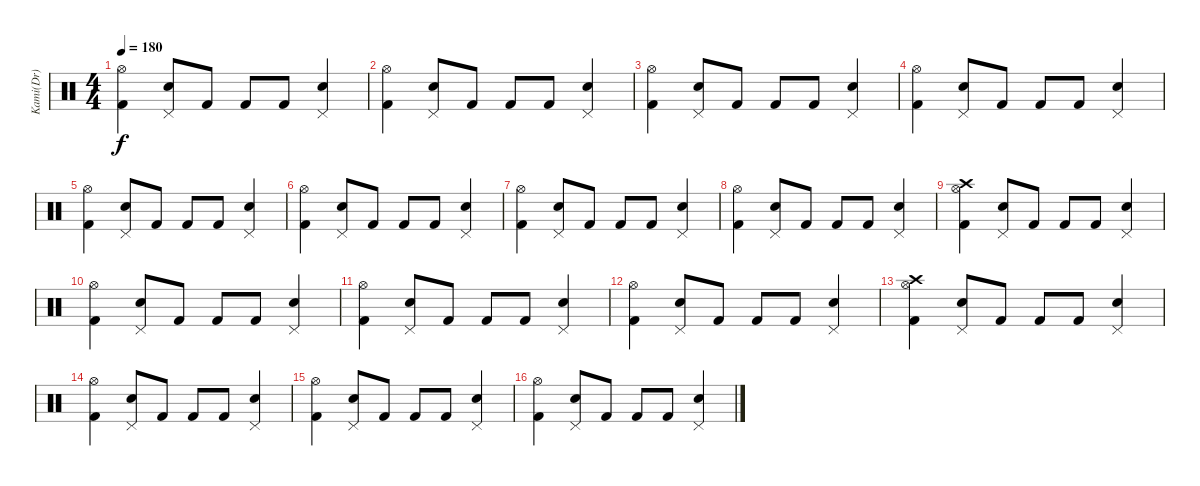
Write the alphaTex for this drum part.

\track ("Kami(Dr)" "Kami(Dr)") {instrument percussion}
\staff {score}
\articulation defaults
\ts (4 4)
\tempo 180
\clef neutral
\ks c
("Kick (hit) 2" "Hi-Hat (open)").4{dy f} ("Electric Snare (hit)" "Pedal Hi-Hat (hit)").8 "Kick (hit) 2".8 "Kick (hit) 2".8 "Kick (hit) 2".8 ("Electric Snare (hit)" "Pedal Hi-Hat (hit)").4 |
("Kick (hit) 2" "Hi-Hat (open)").4 ("Electric Snare (hit)" "Pedal Hi-Hat (hit)").8 "Kick (hit) 2".8 "Kick (hit) 2".8 "Kick (hit) 2".8 ("Electric Snare (hit)" "Pedal Hi-Hat (hit)").4 |
("Kick (hit) 2" "Hi-Hat (open)").4 ("Electric Snare (hit)" "Pedal Hi-Hat (hit)").8 "Kick (hit) 2".8 "Kick (hit) 2".8 "Kick (hit) 2".8 ("Electric Snare (hit)" "Pedal Hi-Hat (hit)").4 |
("Kick (hit) 2" "Hi-Hat (open)").4 ("Electric Snare (hit)" "Pedal Hi-Hat (hit)").8 "Kick (hit) 2".8 "Kick (hit) 2".8 "Kick (hit) 2".8 ("Electric Snare (hit)" "Pedal Hi-Hat (hit)").4 |
("Kick (hit) 2" "Hi-Hat (open)").4 ("Electric Snare (hit)" "Pedal Hi-Hat (hit)").8 "Kick (hit) 2".8 "Kick (hit) 2".8 "Kick (hit) 2".8 ("Electric Snare (hit)" "Pedal Hi-Hat (hit)").4 |
("Kick (hit) 2" "Hi-Hat (open)").4 ("Electric Snare (hit)" "Pedal Hi-Hat (hit)").8 "Kick (hit) 2".8 "Kick (hit) 2".8 "Kick (hit) 2".8 ("Electric Snare (hit)" "Pedal Hi-Hat (hit)").4 |
("Kick (hit) 2" "Hi-Hat (open)").4 ("Electric Snare (hit)" "Pedal Hi-Hat (hit)").8 "Kick (hit) 2".8 "Kick (hit) 2".8 "Kick (hit) 2".8 ("Electric Snare (hit)" "Pedal Hi-Hat (hit)").4 |
("Kick (hit) 2" "Hi-Hat (open)").4 ("Electric Snare (hit)" "Pedal Hi-Hat (hit)").8 "Kick (hit) 2".8 "Kick (hit) 2".8 "Kick (hit) 2".8 ("Electric Snare (hit)" "Pedal Hi-Hat (hit)").4 |
("Kick (hit) 2" "Hi-Hat (open)" "Crash high (hit)").4 ("Electric Snare (hit)" "Pedal Hi-Hat (hit)").8 "Kick (hit) 2".8 "Kick (hit) 2".8 "Kick (hit) 2".8 ("Electric Snare (hit)" "Pedal Hi-Hat (hit)").4 |
("Kick (hit) 2" "Hi-Hat (open)").4 ("Electric Snare (hit)" "Pedal Hi-Hat (hit)").8 "Kick (hit) 2".8 "Kick (hit) 2".8 "Kick (hit) 2".8 ("Electric Snare (hit)" "Pedal Hi-Hat (hit)").4 |
("Kick (hit) 2" "Hi-Hat (open)").4 ("Electric Snare (hit)" "Pedal Hi-Hat (hit)").8 "Kick (hit) 2".8 "Kick (hit) 2".8 "Kick (hit) 2".8 ("Electric Snare (hit)" "Pedal Hi-Hat (hit)").4 |
("Kick (hit) 2" "Hi-Hat (open)").4 ("Electric Snare (hit)" "Pedal Hi-Hat (hit)").8 "Kick (hit) 2".8 "Kick (hit) 2".8 "Kick (hit) 2".8 ("Electric Snare (hit)" "Pedal Hi-Hat (hit)").4 |
("Kick (hit) 2" "Hi-Hat (open)" "Crash high (hit)").4 ("Electric Snare (hit)" "Pedal Hi-Hat (hit)").8 "Kick (hit) 2".8 "Kick (hit) 2".8 "Kick (hit) 2".8 ("Electric Snare (hit)" "Pedal Hi-Hat (hit)").4 |
("Kick (hit) 2" "Hi-Hat (open)").4 ("Electric Snare (hit)" "Pedal Hi-Hat (hit)").8 "Kick (hit) 2".8 "Kick (hit) 2".8 "Kick (hit) 2".8 ("Electric Snare (hit)" "Pedal Hi-Hat (hit)").4 |
("Kick (hit) 2" "Hi-Hat (open)").4 ("Electric Snare (hit)" "Pedal Hi-Hat (hit)").8 "Kick (hit) 2".8 "Kick (hit) 2".8 "Kick (hit) 2".8 ("Electric Snare (hit)" "Pedal Hi-Hat (hit)").4 |
("Kick (hit) 2" "Hi-Hat (open)").4 ("Electric Snare (hit)" "Pedal Hi-Hat (hit)").8 "Kick (hit) 2".8 "Kick (hit) 2".8 "Kick (hit) 2".8 ("Electric Snare (hit)" "Pedal Hi-Hat (hit)").4
